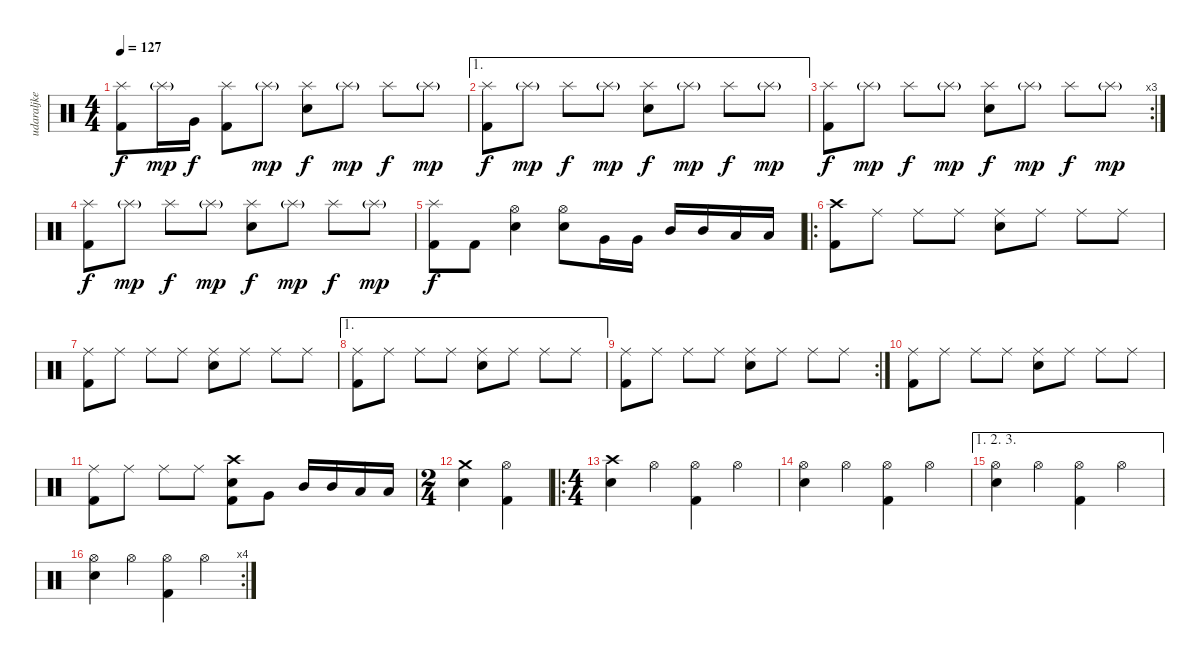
\track ("udaraljke" "udaraljke") {instrument percussion}
\staff {score}
\articulation defaults
\ts (4 4)
\tempo 127
\clef neutral
\ks c
("Splash (hit)" "Kick (hit) 2").8{dy f} "Splash (hit)"{g}.16{dy mp} "Very Low Tom (hit)".16{dy f} ("Splash (hit)" "Kick (hit) 2").8 "Splash (hit)"{g}.8{dy mp} ("Splash (hit)" "Electric Snare (hit)").8{dy f} "Splash (hit)"{g}.8{dy mp} "Splash (hit)".8{dy f} "Splash (hit)"{g}.8{dy mp} |
\ae 1
("Splash (hit)" "Kick (hit) 2").8{dy f} "Splash (hit)"{g}.8{dy mp} "Splash (hit)".8{dy f} "Splash (hit)"{g}.8{dy mp} ("Splash (hit)" "Electric Snare (hit)").8{dy f} "Splash (hit)"{g}.8{dy mp} "Splash (hit)".8{dy f} "Splash (hit)"{g}.8{dy mp} |
\rc 3
("Splash (hit)" "Kick (hit) 2").8{dy f} "Splash (hit)"{g}.8{dy mp} "Splash (hit)".8{dy f} "Splash (hit)"{g}.8{dy mp} ("Splash (hit)" "Electric Snare (hit)").8{dy f} "Splash (hit)"{g}.8{dy mp} "Splash (hit)".8{dy f} "Splash (hit)"{g}.8{dy mp} |
("Splash (hit)" "Kick (hit) 2").8{dy f} "Splash (hit)"{g}.8{dy mp} "Splash (hit)".8{dy f} "Splash (hit)"{g}.8{dy mp} ("Splash (hit)" "Electric Snare (hit)").8{dy f} "Splash (hit)"{g}.8{dy mp} "Splash (hit)".8{dy f} "Splash (hit)"{g}.8{dy mp} |
("Splash (hit)" "Kick (hit) 2").8{dy f} "Kick (hit) 2".8 ("Hi-Hat (open)" "Electric Snare (hit)").4 ("Hi-Hat (open)" "Electric Snare (hit)").8 "Very Low Tom (hit)".16 "Very Low Tom (hit)".16 "Mid Tom (hit)".16 "Mid Tom (hit)".16 "Low Tom (hit)".16 "Low Tom (hit)".16 |
\ro
("Crash high (hit)" "Kick (hit) 2").8 "Ride (middle)".8 "Ride (middle)".8 "Ride (middle)".8 ("Ride (middle)" "Electric Snare (hit)").8 "Ride (middle)".8 "Ride (middle)".8 "Ride (middle)".8 |
("Ride (middle)" "Kick (hit) 2").8 "Ride (middle)".8 "Ride (middle)".8 "Ride (middle)".8 ("Ride (middle)" "Electric Snare (hit)").8 "Ride (middle)".8 "Ride (middle)".8 "Ride (middle)".8 |
\ae 1
("Ride (middle)" "Kick (hit) 2").8 "Ride (middle)".8 "Ride (middle)".8 "Ride (middle)".8 ("Ride (middle)" "Electric Snare (hit)").8 "Ride (middle)".8 "Ride (middle)".8 "Ride (middle)".8 |
\rc 2
("Ride (middle)" "Kick (hit) 2").8 "Ride (middle)".8 "Ride (middle)".8 "Ride (middle)".8 ("Ride (middle)" "Electric Snare (hit)").8 "Ride (middle)".8 "Ride (middle)".8 "Ride (middle)".8 |
("Ride (middle)" "Kick (hit) 2").8 "Ride (middle)".8 "Ride (middle)".8 "Ride (middle)".8 ("Ride (middle)" "Electric Snare (hit)").8 "Ride (middle)".8 "Ride (middle)".8 "Ride (middle)".8 |
("Ride (middle)" "Kick (hit) 2").8 "Ride (middle)".8 "Ride (middle)".8 "Ride (middle)".8 ("Crash high (hit)" "Electric Snare (hit)" "Kick (hit) 2").8 "Very Low Tom (hit)".8 "Mid Tom (hit)".16 "Mid Tom (hit)".16 "Low Tom (hit)".16 "Low Tom (hit)".16 |
\ts (2 4)
("Crash medium (hit)" "Electric Snare (hit)").4 ("Hi-Hat (open)" "Kick (hit) 2").4 |
\ro
\ts (4 4)
("Crash high (hit)" "Electric Snare (hit)").4 "Hi-Hat (open)".4 ("Hi-Hat (open)" "Kick (hit) 2").4 "Hi-Hat (open)".4 |
("Hi-Hat (open)" "Electric Snare (hit)").4 "Hi-Hat (open)".4 ("Hi-Hat (open)" "Kick (hit) 2").4 "Hi-Hat (open)".4 |
\ae (1 2 3)
("Hi-Hat (open)" "Electric Snare (hit)").4 "Hi-Hat (open)".4 ("Hi-Hat (open)" "Kick (hit) 2").4 "Hi-Hat (open)".4 |
\rc 4
("Hi-Hat (open)" "Electric Snare (hit)").4 "Hi-Hat (open)".4 ("Hi-Hat (open)" "Kick (hit) 2").4 "Hi-Hat (open)".4
